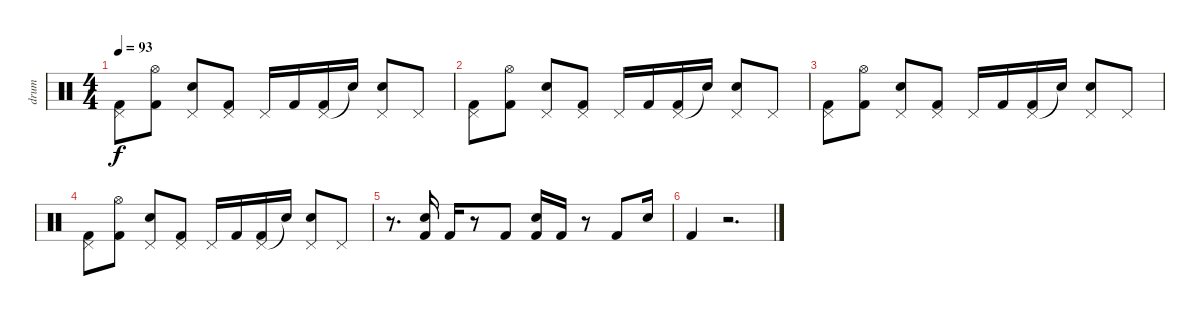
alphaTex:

\track ("drum" "drum") {instrument percussion}
\staff {score}
\articulation defaults
\ts (4 4)
\tempo 93
\clef neutral
\ks c
("Pedal Hi-Hat (hit)" "Kick (hit) 2").8{dy f} ("Hi-Hat (open)" "Kick (hit) 2").8 ("Pedal Hi-Hat (hit)" "Snare (hit) 2").8 ("Pedal Hi-Hat (hit)" "Kick (hit) 2").8 "Pedal Hi-Hat (hit)".16 "Kick (hit) 2".16 ("Pedal Hi-Hat (hit)" "Kick (hit) 2").16 "Snare (hit)"{t}.16 ("Pedal Hi-Hat (hit)" "Snare (hit) 2").8 "Pedal Hi-Hat (hit)".8 |
("Pedal Hi-Hat (hit)" "Kick (hit) 2").8 ("Hi-Hat (open)" "Kick (hit) 2").8 ("Pedal Hi-Hat (hit)" "Snare (hit) 2").8 ("Pedal Hi-Hat (hit)" "Kick (hit) 2").8 "Pedal Hi-Hat (hit)".16 "Kick (hit) 2".16 ("Pedal Hi-Hat (hit)" "Kick (hit) 2").16 "Snare (hit)"{t}.16 ("Pedal Hi-Hat (hit)" "Snare (hit) 2").8 "Pedal Hi-Hat (hit)".8 |
("Pedal Hi-Hat (hit)" "Kick (hit) 2").8 ("Hi-Hat (open)" "Kick (hit) 2").8 ("Pedal Hi-Hat (hit)" "Snare (hit) 2").8 ("Pedal Hi-Hat (hit)" "Kick (hit) 2").8 "Pedal Hi-Hat (hit)".16 "Kick (hit) 2".16 ("Pedal Hi-Hat (hit)" "Kick (hit) 2").16 "Snare (hit)"{t}.16 ("Pedal Hi-Hat (hit)" "Snare (hit) 2").8 "Pedal Hi-Hat (hit)".8 |
("Pedal Hi-Hat (hit)" "Kick (hit) 2").8 ("Hi-Hat (open)" "Kick (hit) 2").8 ("Pedal Hi-Hat (hit)" "Snare (hit) 2").8 ("Pedal Hi-Hat (hit)" "Kick (hit) 2").8 "Pedal Hi-Hat (hit)".16 "Kick (hit) 2".16 ("Pedal Hi-Hat (hit)" "Kick (hit) 2").16 "Snare (hit)"{t}.16 ("Pedal Hi-Hat (hit)" "Snare (hit) 2").8 "Pedal Hi-Hat (hit)".8 |
r.8{d} ("Electric Snare (hit)" "Kick (hit) 2").16 "Kick (hit) 2".16 r.8 "Kick (hit) 2".8 ("Electric Snare (hit)" "Kick (hit) 2").16 "Kick (hit) 2".16 r.8 "Kick (hit) 2".8 "Electric Snare (hit)".16 |
"Kick (hit) 2".4 r.2{d}
